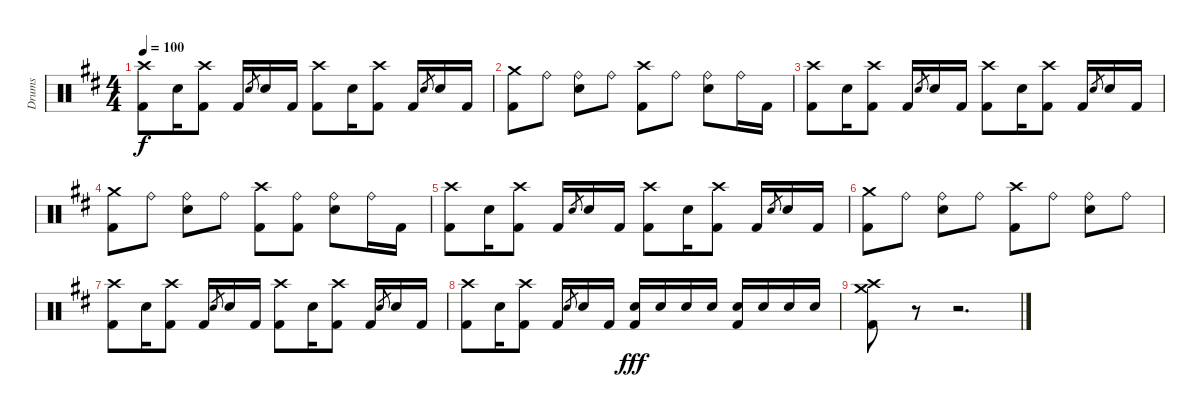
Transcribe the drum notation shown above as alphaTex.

\track ("Drums" "Drums") {instrument percussion}
\staff {score}
\articulation defaults
\ts (4 4)
\tempo 100
\clef neutral
\ks bminor
("Crash high (hit)" "Kick (hit) 2").8{dy f} "Snare (hit) 2".16 ("Crash high (hit)" "Kick (hit) 2").8 "Kick (hit) 2".16 "Snare (hit) 2".8{gr} "Snare (hit) 2".16 "Kick (hit) 2".16 ("Crash high (hit)" "Kick (hit) 2").8 "Snare (hit) 2".16 ("Crash high (hit)" "Kick (hit) 2").8 "Kick (hit) 2".16 "Snare (hit) 2".8{gr} "Snare (hit) 2".16 "Kick (hit) 2".16 |
("Crash medium (hit)" "Kick (hit) 2").8 "Ride (bell)".8 ("Ride (bell)" "Snare (hit) 2").8 "Ride (bell)".8 ("Crash high (hit)" "Kick (hit) 2").8 "Ride (bell)".8 ("Ride (bell)" "Snare (hit) 2").8 "Ride (bell)".16 "Kick (hit) 2".16 |
("Crash high (hit)" "Kick (hit) 2").8 "Snare (hit) 2".16 ("Crash high (hit)" "Kick (hit) 2").8 "Kick (hit) 2".16 "Snare (hit) 2".8{gr} "Snare (hit) 2".16 "Kick (hit) 2".16 ("Crash high (hit)" "Kick (hit) 2").8 "Snare (hit) 2".16 ("Crash high (hit)" "Kick (hit) 2").8 "Kick (hit) 2".16 "Snare (hit) 2".8{gr} "Snare (hit) 2".16 "Kick (hit) 2".16 |
("Crash medium (hit)" "Kick (hit) 2").8 "Ride (bell)".8 ("Ride (bell)" "Snare (hit) 2").8 "Ride (bell)".8 ("Crash high (hit)" "Kick (hit) 2").8 ("Ride (bell)" "Kick (hit) 2").8 ("Ride (bell)" "Snare (hit) 2").8 "Ride (bell)".16 "Kick (hit) 2".16 |
("Crash high (hit)" "Kick (hit) 2").8 "Snare (hit) 2".16 ("Crash high (hit)" "Kick (hit) 2").8 "Kick (hit) 2".16 "Snare (hit) 2".8{gr} "Snare (hit) 2".16 "Kick (hit) 2".16 ("Crash high (hit)" "Kick (hit) 2").8 "Snare (hit) 2".16 ("Crash high (hit)" "Kick (hit) 2").8 "Kick (hit) 2".16 "Snare (hit) 2".8{gr} "Snare (hit) 2".16 "Kick (hit) 2".16 |
("Crash medium (hit)" "Kick (hit) 2").8 "Ride (bell)".8 ("Ride (bell)" "Snare (hit) 2").8 "Ride (bell)".8 ("Crash high (hit)" "Kick (hit) 2").8 "Ride (bell)".8 ("Ride (bell)" "Snare (hit) 2").8 "Ride (bell)".8 |
("Crash high (hit)" "Kick (hit) 2").8 "Snare (hit) 2".16 ("Crash high (hit)" "Kick (hit) 2").8 "Kick (hit) 2".16 "Snare (hit) 2".8{gr} "Snare (hit) 2".16 "Kick (hit) 2".16 ("Crash high (hit)" "Kick (hit) 2").8 "Snare (hit) 2".16 ("Crash high (hit)" "Kick (hit) 2").8 "Kick (hit) 2".16 "Snare (hit) 2".8{gr} "Snare (hit) 2".16 "Kick (hit) 2".16 |
("Crash high (hit)" "Kick (hit) 2").8 "Snare (hit) 2".16 ("Crash high (hit)" "Kick (hit) 2").8 "Kick (hit) 2".16 "Snare (hit) 2".8{gr} "Snare (hit) 2".16 "Kick (hit) 2".16 ("Snare (hit) 2" "Kick (hit) 2").16{dy fff} "Snare (hit) 2".16 "Snare (hit) 2".16 "Snare (hit) 2".16 ("Snare (hit) 2" "Kick (hit) 2").16 "Snare (hit) 2".16 "Snare (hit) 2".16 "Snare (hit) 2".16 |
("Crash medium (hit)" "Crash high (hit)" "Kick (hit) 2").8 r.8 r.2{d}
